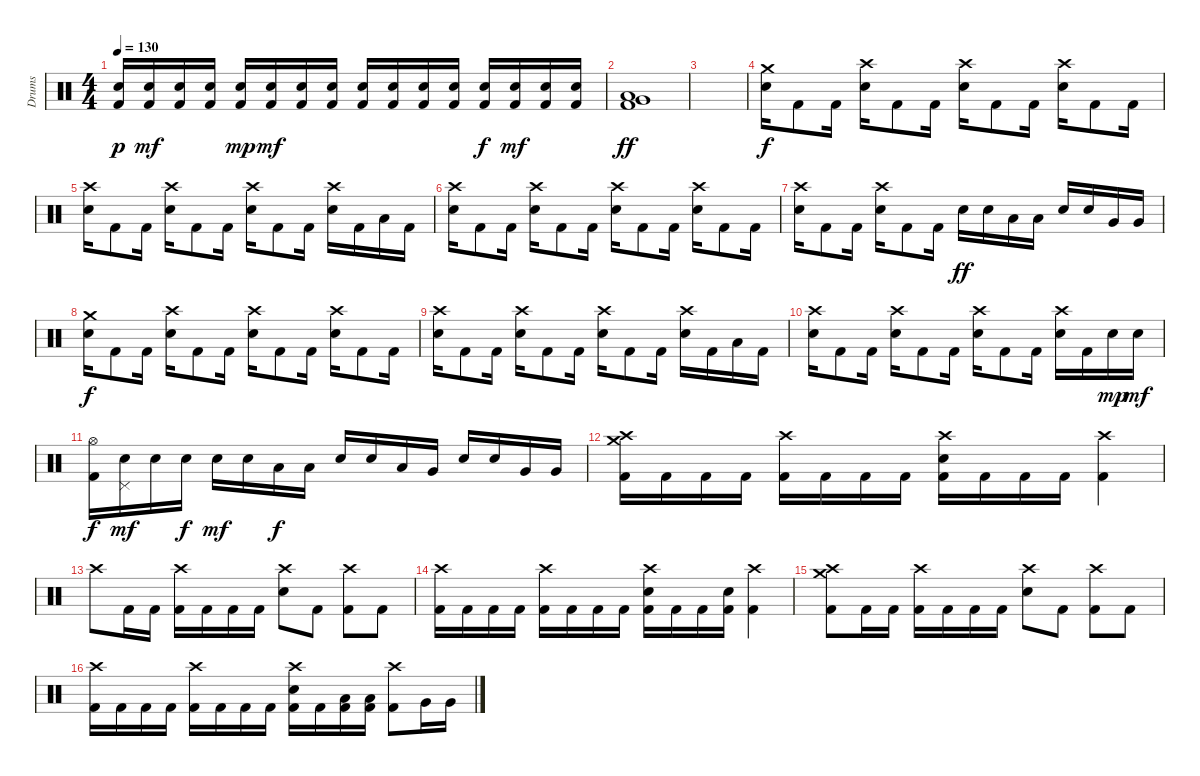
\track ("Drums" "Drums") {instrument percussion}
\staff {score}
\articulation defaults
\ts (4 4)
\tempo 130
\clef neutral
\ks c
("Electric Snare (hit)" "Kick (hit) 2").16{dy p} ("Electric Snare (hit)" "Kick (hit) 2").16{dy mf} ("Electric Snare (hit)" "Kick (hit) 2").16 ("Electric Snare (hit)" "Kick (hit) 2").16 ("Electric Snare (hit)" "Kick (hit) 2").16{dy mp} ("Electric Snare (hit)" "Kick (hit) 2").16{dy mf} ("Electric Snare (hit)" "Kick (hit) 2").16 ("Electric Snare (hit)" "Kick (hit) 2").16 ("Electric Snare (hit)" "Kick (hit) 2").16 ("Electric Snare (hit)" "Kick (hit) 2").16 ("Electric Snare (hit)" "Kick (hit) 2").16 ("Electric Snare (hit)" "Kick (hit) 2").16 ("Electric Snare (hit)" "Kick (hit) 2").16{dy f} ("Electric Snare (hit)" "Kick (hit) 2").16{dy mf} ("Electric Snare (hit)" "Kick (hit) 2").16 ("Electric Snare (hit)" "Kick (hit) 2").16 |
("Low Floor Tom (hit)" "Very Low Tom (hit)" "Kick (hit) 2").1{dy ff} |
|
("Crash medium (hit)" "Electric Snare (hit)").16{dy f} "Kick (hit) 2".8 "Kick (hit) 2".16 ("Crash high (hit)" "Electric Snare (hit)").16 "Kick (hit) 2".8 "Kick (hit) 2".16 ("Crash high (hit)" "Electric Snare (hit)").16 "Kick (hit) 2".8 "Kick (hit) 2".16 ("Crash high (hit)" "Electric Snare (hit)").16 "Kick (hit) 2".8 "Kick (hit) 2".16 |
("Crash high (hit)" "Electric Snare (hit)").16 "Kick (hit) 2".8 "Kick (hit) 2".16 ("Crash high (hit)" "Electric Snare (hit)").16 "Kick (hit) 2".8 "Kick (hit) 2".16 ("Crash high (hit)" "Electric Snare (hit)").16 "Kick (hit) 2".8 "Kick (hit) 2".16 ("Crash high (hit)" "Electric Snare (hit)").16 "Kick (hit) 2".16 "Low Tom (hit)".16 "Kick (hit) 2".16 |
("Crash high (hit)" "Electric Snare (hit)").16 "Kick (hit) 2".8 "Kick (hit) 2".16 ("Crash high (hit)" "Electric Snare (hit)").16 "Kick (hit) 2".8 "Kick (hit) 2".16 ("Crash high (hit)" "Electric Snare (hit)").16 "Kick (hit) 2".8 "Kick (hit) 2".16 ("Crash high (hit)" "Electric Snare (hit)").16 "Kick (hit) 2".8 "Kick (hit) 2".16 |
("Crash high (hit)" "Electric Snare (hit)").16 "Kick (hit) 2".8 "Kick (hit) 2".16 ("Crash high (hit)" "Electric Snare (hit)").16 "Kick (hit) 2".8 "Kick (hit) 2".16 "Electric Snare (hit)".16{dy ff} "Electric Snare (hit)".16 "Low Tom (hit)".16 "Low Tom (hit)".16 "Electric Snare (hit)".16 "Electric Snare (hit)".16 "Very Low Tom (hit)".16 "Very Low Tom (hit)".16 |
("Crash medium (hit)" "Electric Snare (hit)").16{dy f} "Kick (hit) 2".8 "Kick (hit) 2".16 ("Crash high (hit)" "Electric Snare (hit)").16 "Kick (hit) 2".8 "Kick (hit) 2".16 ("Crash high (hit)" "Electric Snare (hit)").16 "Kick (hit) 2".8 "Kick (hit) 2".16 ("Crash high (hit)" "Electric Snare (hit)").16 "Kick (hit) 2".8 "Kick (hit) 2".16 |
("Crash high (hit)" "Electric Snare (hit)").16 "Kick (hit) 2".8 "Kick (hit) 2".16 ("Crash high (hit)" "Electric Snare (hit)").16 "Kick (hit) 2".8 "Kick (hit) 2".16 ("Crash high (hit)" "Electric Snare (hit)").16 "Kick (hit) 2".8 "Kick (hit) 2".16 ("Crash high (hit)" "Electric Snare (hit)").16 "Kick (hit) 2".16 "Low Tom (hit)".16 "Kick (hit) 2".16 |
("Crash high (hit)" "Electric Snare (hit)").16 "Kick (hit) 2".8 "Kick (hit) 2".16 ("Crash high (hit)" "Electric Snare (hit)").16 "Kick (hit) 2".8 "Kick (hit) 2".16 ("Crash high (hit)" "Electric Snare (hit)").16 "Kick (hit) 2".8 "Kick (hit) 2".16 ("Crash high (hit)" "Electric Snare (hit)").16 "Kick (hit) 2".16 "Electric Snare (hit)".16{dy mp} "Electric Snare (hit)".16{dy mf} |
("Hi-Hat (open)" "Kick (hit) 2").16{dy f} ("Pedal Hi-Hat (hit)" "Electric Snare (hit)").16{dy mf} "Electric Snare (hit)".16 "Electric Snare (hit)".16{dy f} "Electric Snare (hit)".16{dy mf} "Electric Snare (hit)".16 "Low Tom (hit)".16{dy f} "Low Tom (hit)".16 "Electric Snare (hit)".16 "Electric Snare (hit)".16 "Low Tom (hit)".16 "Very Low Tom (hit)".16 "Electric Snare (hit)".16 "Electric Snare (hit)".16 "Very Low Tom (hit)".16 "Very Low Tom (hit)".16 |
("Crash high (hit)" "Crash medium (hit)" "Kick (hit) 2").16 "Kick (hit) 2".16 "Kick (hit) 2".16 "Kick (hit) 2".16 ("Crash high (hit)" "Kick (hit) 2").16 "Kick (hit) 2".16 "Kick (hit) 2".16 "Kick (hit) 2".16 ("Crash high (hit)" "Electric Snare (hit)" "Kick (hit) 2").16 "Kick (hit) 2".16 "Kick (hit) 2".16 "Kick (hit) 2".16 ("Crash high (hit)" "Kick (hit) 2").4 |
"Crash high (hit)".8 "Kick (hit) 2".16 "Kick (hit) 2".16 ("Crash high (hit)" "Kick (hit) 2").16 "Kick (hit) 2".16 "Kick (hit) 2".16 "Kick (hit) 2".16 ("Crash high (hit)" "Electric Snare (hit)").8 "Kick (hit) 2".8 ("Crash high (hit)" "Kick (hit) 2").8 "Kick (hit) 2".8 |
("Crash high (hit)" "Kick (hit) 2").16 "Kick (hit) 2".16 "Kick (hit) 2".16 "Kick (hit) 2".16 ("Crash high (hit)" "Kick (hit) 2").16 "Kick (hit) 2".16 "Kick (hit) 2".16 "Kick (hit) 2".16 ("Crash high (hit)" "Electric Snare (hit)" "Kick (hit) 2").16 "Kick (hit) 2".16 "Kick (hit) 2".16 ("Electric Snare (hit)" "Kick (hit) 2").16 ("Crash high (hit)" "Kick (hit) 2").4 |
("Crash high (hit)" "Crash medium (hit)" "Kick (hit) 2").8 "Kick (hit) 2".16 "Kick (hit) 2".16 ("Crash high (hit)" "Kick (hit) 2").16 "Kick (hit) 2".16 "Kick (hit) 2".16 "Kick (hit) 2".16 ("Crash high (hit)" "Electric Snare (hit)").8 "Kick (hit) 2".8 ("Crash high (hit)" "Kick (hit) 2").8 "Kick (hit) 2".8 |
("Crash high (hit)" "Kick (hit) 2").16 "Kick (hit) 2".16 "Kick (hit) 2".16 "Kick (hit) 2".16 ("Crash high (hit)" "Kick (hit) 2").16 "Kick (hit) 2".16 "Kick (hit) 2".16 "Kick (hit) 2".16 ("Crash high (hit)" "Electric Snare (hit)" "Kick (hit) 2").16 "Kick (hit) 2".16 ("Low Tom (hit)" "Kick (hit) 2").16 ("Low Tom (hit)" "Kick (hit) 2").16 ("Crash high (hit)" "Kick (hit) 2").8 "Very Low Tom (hit)".16 "Very Low Tom (hit)".16
